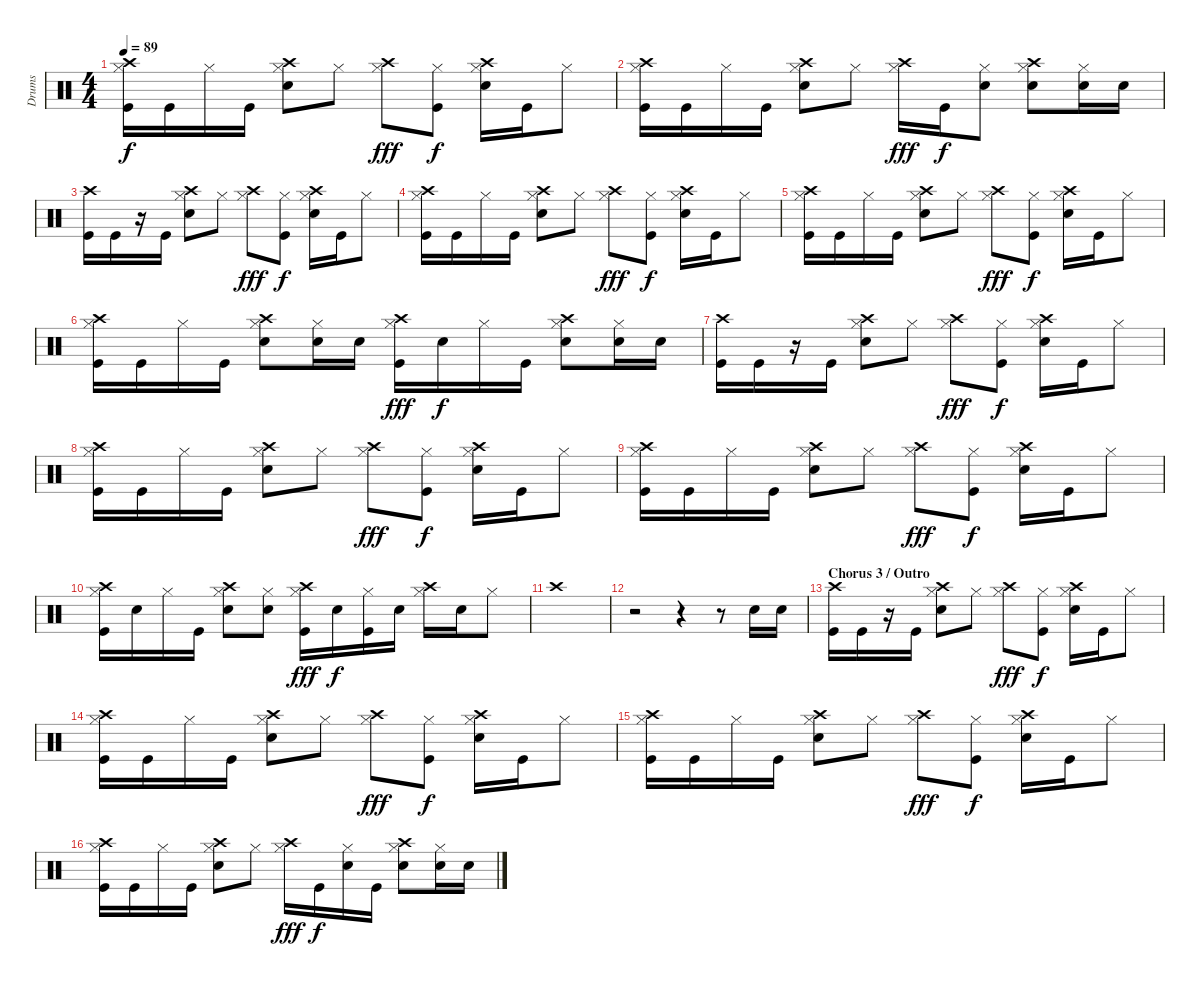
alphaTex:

\track ("Drums" "Drums") {instrument percussion}
\staff {score}
\articulation defaults
\ts (4 4)
\tempo 89
\clef neutral
\ks c
("Hi-Hat (closed)" "Crash high (hit)" "Kick (hit)").16{dy f} "Kick (hit)".16 "Hi-Hat (closed)".16 "Kick (hit)".16 ("Hi-Hat (closed)" "Crash high (hit)" "Snare (hit) 2").8 "Hi-Hat (closed)".8 ("Hi-Hat (closed)" "Crash high (hit)").8{dy fff} ("Hi-Hat (closed)" "Kick (hit)").8{dy f} ("Hi-Hat (closed)" "Crash high (hit)" "Snare (hit) 2").16 "Kick (hit)".16 "Hi-Hat (closed)".8 |
("Hi-Hat (closed)" "Crash high (hit)" "Kick (hit)").16 "Kick (hit)".16 "Hi-Hat (closed)".16 "Kick (hit)".16 ("Hi-Hat (closed)" "Crash high (hit)" "Snare (hit) 2").8 "Hi-Hat (closed)".8 ("Hi-Hat (closed)" "Crash high (hit)").16{dy fff} "Kick (hit)".16{dy f} ("Hi-Hat (closed)" "Snare (hit) 2").8 ("Hi-Hat (closed)" "Crash high (hit)" "Snare (hit) 2").8 ("Hi-Hat (closed)" "Snare (hit) 2").16 "Snare (hit) 2".16 |
("Crash high (hit)" "Kick (hit)").16 "Kick (hit)".16 r.16 "Kick (hit)".16 ("Hi-Hat (closed)" "Crash high (hit)" "Snare (hit) 2").8 "Hi-Hat (closed)".8 ("Hi-Hat (closed)" "Crash high (hit)").8{dy fff} ("Hi-Hat (closed)" "Kick (hit)").8{dy f} ("Hi-Hat (closed)" "Crash high (hit)" "Snare (hit) 2").16 "Kick (hit)".16 "Hi-Hat (closed)".8 |
("Hi-Hat (closed)" "Crash high (hit)" "Kick (hit)").16 "Kick (hit)".16 "Hi-Hat (closed)".16 "Kick (hit)".16 ("Hi-Hat (closed)" "Crash high (hit)" "Snare (hit) 2").8 "Hi-Hat (closed)".8 ("Hi-Hat (closed)" "Crash high (hit)").8{dy fff} ("Hi-Hat (closed)" "Kick (hit)").8{dy f} ("Hi-Hat (closed)" "Crash high (hit)" "Snare (hit) 2").16 "Kick (hit)".16 "Hi-Hat (closed)".8 |
("Hi-Hat (closed)" "Crash high (hit)" "Kick (hit)").16 "Kick (hit)".16 "Hi-Hat (closed)".16 "Kick (hit)".16 ("Hi-Hat (closed)" "Crash high (hit)" "Snare (hit) 2").8 "Hi-Hat (closed)".8 ("Hi-Hat (closed)" "Crash high (hit)").8{dy fff} ("Hi-Hat (closed)" "Kick (hit)").8{dy f} ("Hi-Hat (closed)" "Crash high (hit)" "Snare (hit) 2").16 "Kick (hit)".16 "Hi-Hat (closed)".8 |
("Hi-Hat (closed)" "Crash high (hit)" "Kick (hit)").16 "Kick (hit)".16 "Hi-Hat (closed)".16 "Kick (hit)".16 ("Hi-Hat (closed)" "Crash high (hit)" "Snare (hit) 2").8 ("Hi-Hat (closed)" "Snare (hit) 2").16 "Snare (hit) 2".16 ("Hi-Hat (closed)" "Crash high (hit)" "Kick (hit)").16{dy fff} "Snare (hit) 2".16{dy f} "Hi-Hat (closed)".16 "Kick (hit)".16 ("Hi-Hat (closed)" "Crash high (hit)" "Snare (hit) 2").8 ("Hi-Hat (closed)" "Snare (hit) 2").16 "Snare (hit) 2".16 |
("Crash high (hit)" "Kick (hit)").16 "Kick (hit)".16 r.16 "Kick (hit)".16 ("Hi-Hat (closed)" "Crash high (hit)" "Snare (hit) 2").8 "Hi-Hat (closed)".8 ("Hi-Hat (closed)" "Crash high (hit)").8{dy fff} ("Hi-Hat (closed)" "Kick (hit)").8{dy f} ("Hi-Hat (closed)" "Crash high (hit)" "Snare (hit) 2").16 "Kick (hit)".16 "Hi-Hat (closed)".8 |
("Hi-Hat (closed)" "Crash high (hit)" "Kick (hit)").16 "Kick (hit)".16 "Hi-Hat (closed)".16 "Kick (hit)".16 ("Hi-Hat (closed)" "Crash high (hit)" "Snare (hit) 2").8 "Hi-Hat (closed)".8 ("Hi-Hat (closed)" "Crash high (hit)").8{dy fff} ("Hi-Hat (closed)" "Kick (hit)").8{dy f} ("Hi-Hat (closed)" "Crash high (hit)" "Snare (hit) 2").16 "Kick (hit)".16 "Hi-Hat (closed)".8 |
("Hi-Hat (closed)" "Crash high (hit)" "Kick (hit)").16 "Kick (hit)".16 "Hi-Hat (closed)".16 "Kick (hit)".16 ("Hi-Hat (closed)" "Crash high (hit)" "Snare (hit) 2").8 "Hi-Hat (closed)".8 ("Hi-Hat (closed)" "Crash high (hit)").8{dy fff} ("Hi-Hat (closed)" "Kick (hit)").8{dy f} ("Hi-Hat (closed)" "Crash high (hit)" "Snare (hit) 2").16 "Kick (hit)".16 "Hi-Hat (closed)".8 |
("Hi-Hat (closed)" "Crash high (hit)" "Kick (hit)").16 "Snare (hit) 2".16 "Hi-Hat (closed)".16 "Kick (hit)".16 ("Hi-Hat (closed)" "Crash high (hit)" "Snare (hit) 2").8 ("Hi-Hat (closed)" "Snare (hit) 2").8 ("Hi-Hat (closed)" "Crash high (hit)" "Kick (hit)").16{dy fff} "Snare (hit) 2".16{dy f} ("Hi-Hat (closed)" "Kick (hit)").16 "Snare (hit) 2".16 ("Hi-Hat (closed)" "Crash high (hit)").16 "Snare (hit) 2".16 "Hi-Hat (closed)".8 |
"Crash high (hit)".1 |
r.2 r.4 r.8 "Snare (hit) 2".16 "Snare (hit) 2".16 |
\section ("" "Chorus 3 / Outro")
("Crash high (hit)" "Kick (hit)").16 "Kick (hit)".16 r.16 "Kick (hit)".16 ("Hi-Hat (closed)" "Crash high (hit)" "Snare (hit) 2").8 "Hi-Hat (closed)".8 ("Hi-Hat (closed)" "Crash high (hit)").8{dy fff} ("Hi-Hat (closed)" "Kick (hit)").8{dy f} ("Hi-Hat (closed)" "Crash high (hit)" "Snare (hit) 2").16 "Kick (hit)".16 "Hi-Hat (closed)".8 |
("Hi-Hat (closed)" "Crash high (hit)" "Kick (hit)").16 "Kick (hit)".16 "Hi-Hat (closed)".16 "Kick (hit)".16 ("Hi-Hat (closed)" "Crash high (hit)" "Snare (hit) 2").8 "Hi-Hat (closed)".8 ("Hi-Hat (closed)" "Crash high (hit)").8{dy fff} ("Hi-Hat (closed)" "Kick (hit)").8{dy f} ("Hi-Hat (closed)" "Crash high (hit)" "Snare (hit) 2").16 "Kick (hit)".16 "Hi-Hat (closed)".8 |
("Hi-Hat (closed)" "Crash high (hit)" "Kick (hit)").16 "Kick (hit)".16 "Hi-Hat (closed)".16 "Kick (hit)".16 ("Hi-Hat (closed)" "Crash high (hit)" "Snare (hit) 2").8 "Hi-Hat (closed)".8 ("Hi-Hat (closed)" "Crash high (hit)").8{dy fff} ("Hi-Hat (closed)" "Kick (hit)").8{dy f} ("Hi-Hat (closed)" "Crash high (hit)" "Snare (hit) 2").16 "Kick (hit)".16 "Hi-Hat (closed)".8 |
("Hi-Hat (closed)" "Crash high (hit)" "Kick (hit)").16 "Kick (hit)".16 "Hi-Hat (closed)".16 "Kick (hit)".16 ("Hi-Hat (closed)" "Crash high (hit)" "Snare (hit) 2").8 "Hi-Hat (closed)".8 ("Hi-Hat (closed)" "Crash high (hit)").16{dy fff} "Kick (hit)".16{dy f} ("Hi-Hat (closed)" "Snare (hit) 2").16 "Kick (hit)".16 ("Hi-Hat (closed)" "Crash high (hit)" "Snare (hit) 2").8 ("Hi-Hat (closed)" "Snare (hit) 2").16 "Snare (hit) 2".16
